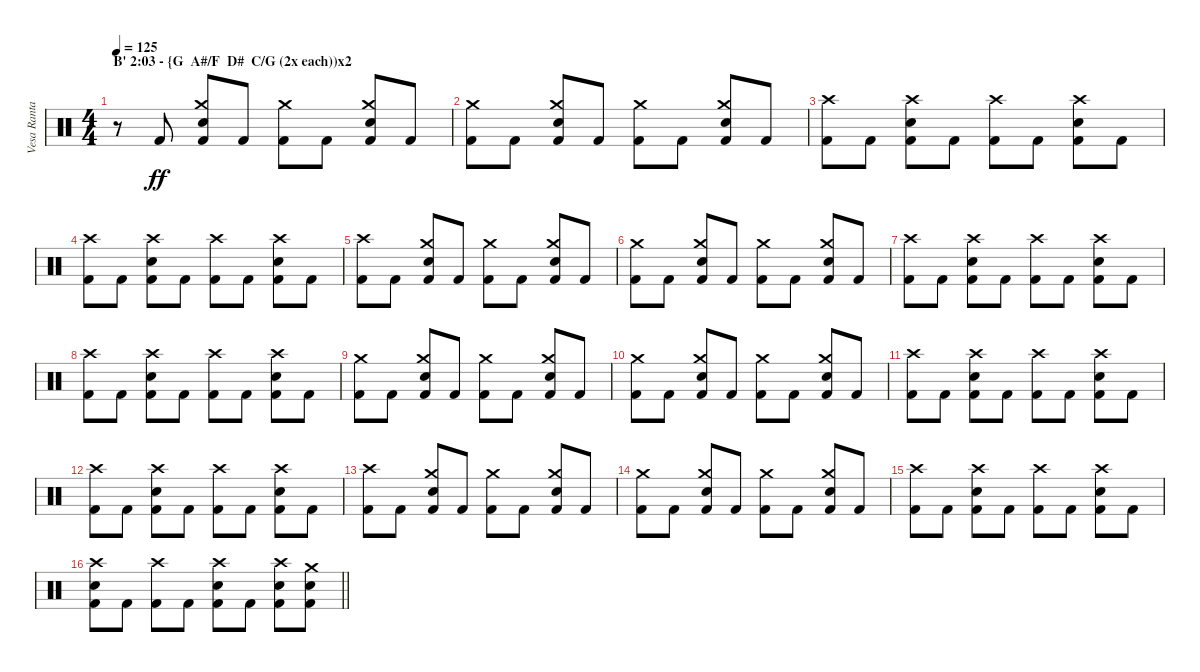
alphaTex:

\track ("Vesa Ranta (drums)" "Vesa Ranta") {instrument percussion}
\staff {score}
\articulation defaults
\ts (4 4)
\section ("" "B' 2:03 - {G  A#/F  D#  C/G (2x each))x2")
\tempo 125
\clef neutral
\ks c
r.8{dy ff} "Kick (hit) 2".8 ("Crash medium (hit)" "Electric Snare (hit)" "Kick (hit) 2").8 "Kick (hit) 2".8 ("Crash medium (hit)" "Kick (hit) 2").8 "Kick (hit) 2".8 ("Crash medium (hit)" "Electric Snare (hit)" "Kick (hit) 2").8 "Kick (hit) 2".8 |
("Crash medium (hit)" "Kick (hit) 2").8 "Kick (hit) 2".8 ("Crash medium (hit)" "Electric Snare (hit)" "Kick (hit) 2").8 "Kick (hit) 2".8 ("Crash medium (hit)" "Kick (hit) 2").8 "Kick (hit) 2".8 ("Crash medium (hit)" "Electric Snare (hit)" "Kick (hit) 2").8 "Kick (hit) 2".8 |
("Crash high (hit)" "Kick (hit) 2").8 "Kick (hit) 2".8 ("Crash high (hit)" "Electric Snare (hit)" "Kick (hit) 2").8 "Kick (hit) 2".8 ("Crash high (hit)" "Kick (hit) 2").8 "Kick (hit) 2".8 ("Crash high (hit)" "Electric Snare (hit)" "Kick (hit) 2").8 "Kick (hit) 2".8 |
("Crash high (hit)" "Kick (hit) 2").8 "Kick (hit) 2".8 ("Crash high (hit)" "Electric Snare (hit)" "Kick (hit) 2").8 "Kick (hit) 2".8 ("Crash high (hit)" "Kick (hit) 2").8 "Kick (hit) 2".8 ("Crash high (hit)" "Electric Snare (hit)" "Kick (hit) 2").8 "Kick (hit) 2".8 |
("Crash high (hit)" "Kick (hit) 2").8 "Kick (hit) 2".8 ("Crash medium (hit)" "Electric Snare (hit)" "Kick (hit) 2").8 "Kick (hit) 2".8 ("Crash medium (hit)" "Kick (hit) 2").8 "Kick (hit) 2".8 ("Crash medium (hit)" "Electric Snare (hit)" "Kick (hit) 2").8 "Kick (hit) 2".8 |
("Crash medium (hit)" "Kick (hit) 2").8 "Kick (hit) 2".8 ("Crash medium (hit)" "Electric Snare (hit)" "Kick (hit) 2").8 "Kick (hit) 2".8 ("Crash medium (hit)" "Kick (hit) 2").8 "Kick (hit) 2".8 ("Crash medium (hit)" "Electric Snare (hit)" "Kick (hit) 2").8 "Kick (hit) 2".8 |
("Crash high (hit)" "Kick (hit) 2").8 "Kick (hit) 2".8 ("Crash high (hit)" "Electric Snare (hit)" "Kick (hit) 2").8 "Kick (hit) 2".8 ("Crash high (hit)" "Kick (hit) 2").8 "Kick (hit) 2".8 ("Crash high (hit)" "Electric Snare (hit)" "Kick (hit) 2").8 "Kick (hit) 2".8 |
("Crash high (hit)" "Kick (hit) 2").8 "Kick (hit) 2".8 ("Crash high (hit)" "Electric Snare (hit)" "Kick (hit) 2").8 "Kick (hit) 2".8 ("Crash high (hit)" "Kick (hit) 2").8 "Kick (hit) 2".8 ("Crash high (hit)" "Electric Snare (hit)" "Kick (hit) 2").8 "Kick (hit) 2".8 |
("Crash medium (hit)" "Kick (hit) 2").8 "Kick (hit) 2".8 ("Crash medium (hit)" "Electric Snare (hit)" "Kick (hit) 2").8 "Kick (hit) 2".8 ("Crash medium (hit)" "Kick (hit) 2").8 "Kick (hit) 2".8 ("Crash medium (hit)" "Electric Snare (hit)" "Kick (hit) 2").8 "Kick (hit) 2".8 |
("Crash medium (hit)" "Kick (hit) 2").8 "Kick (hit) 2".8 ("Crash medium (hit)" "Electric Snare (hit)" "Kick (hit) 2").8 "Kick (hit) 2".8 ("Crash medium (hit)" "Kick (hit) 2").8 "Kick (hit) 2".8 ("Crash medium (hit)" "Electric Snare (hit)" "Kick (hit) 2").8 "Kick (hit) 2".8 |
("Crash high (hit)" "Kick (hit) 2").8 "Kick (hit) 2".8 ("Crash high (hit)" "Electric Snare (hit)" "Kick (hit) 2").8 "Kick (hit) 2".8 ("Crash high (hit)" "Kick (hit) 2").8 "Kick (hit) 2".8 ("Crash high (hit)" "Electric Snare (hit)" "Kick (hit) 2").8 "Kick (hit) 2".8 |
("Crash high (hit)" "Kick (hit) 2").8 "Kick (hit) 2".8 ("Crash high (hit)" "Electric Snare (hit)" "Kick (hit) 2").8 "Kick (hit) 2".8 ("Crash high (hit)" "Kick (hit) 2").8 "Kick (hit) 2".8 ("Crash high (hit)" "Electric Snare (hit)" "Kick (hit) 2").8 "Kick (hit) 2".8 |
("Crash high (hit)" "Kick (hit) 2").8 "Kick (hit) 2".8 ("Crash medium (hit)" "Electric Snare (hit)" "Kick (hit) 2").8 "Kick (hit) 2".8 ("Crash medium (hit)" "Kick (hit) 2").8 "Kick (hit) 2".8 ("Crash medium (hit)" "Electric Snare (hit)" "Kick (hit) 2").8 "Kick (hit) 2".8 |
("Crash medium (hit)" "Kick (hit) 2").8 "Kick (hit) 2".8 ("Crash medium (hit)" "Electric Snare (hit)" "Kick (hit) 2").8 "Kick (hit) 2".8 ("Crash medium (hit)" "Kick (hit) 2").8 "Kick (hit) 2".8 ("Crash medium (hit)" "Electric Snare (hit)" "Kick (hit) 2").8 "Kick (hit) 2".8 |
("Crash high (hit)" "Kick (hit) 2").8 "Kick (hit) 2".8 ("Crash high (hit)" "Electric Snare (hit)" "Kick (hit) 2").8 "Kick (hit) 2".8 ("Crash high (hit)" "Kick (hit) 2").8 "Kick (hit) 2".8 ("Crash high (hit)" "Electric Snare (hit)" "Kick (hit) 2").8 "Kick (hit) 2".8 |
\barLineRight lightlight
("Crash high (hit)" "Electric Snare (hit)" "Kick (hit) 2").8 "Kick (hit) 2".8 ("Crash high (hit)" "Kick (hit) 2").8 "Kick (hit) 2".8 ("Crash high (hit)" "Electric Snare (hit)" "Kick (hit) 2").8 "Kick (hit) 2".8 ("Crash high (hit)" "Electric Snare (hit)" "Kick (hit) 2").8 ("Crash medium (hit)" "Electric Snare (hit)" "Kick (hit) 2").8
